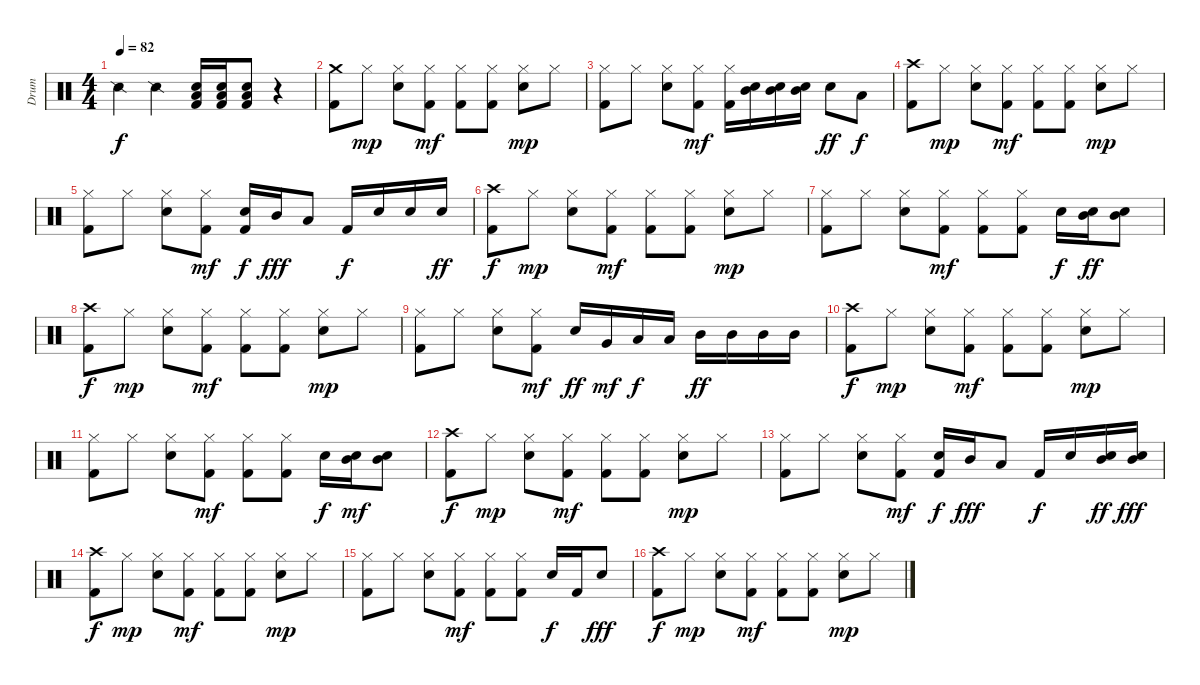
\track ("Drum" "Drum") {instrument percussion}
\staff {score}
\articulation defaults
\ts (4 4)
\tempo 82
\clef neutral
\ks c "Snare (side stick) 2".4{dy f} "Snare (side stick) 2".4
("Low Floor Tom (hit)" "Electric Snare (hit)" "Kick (hit) 2").16 ("Low Floor Tom (hit)" "Electric Snare (hit)" "Kick (hit) 2").16 ("Low Floor Tom (hit)" "Electric Snare (hit)" "Kick (hit) 2").8 r.4 |
("Crash medium (hit)" "Kick (hit) 2").8 "Hi-Hat (closed)".8{dy mp} ("Hi-Hat (closed)" "Electric Snare (hit)").8 ("Hi-Hat (closed)" "Kick (hit) 2").8{dy mf} ("Hi-Hat (closed)" "Kick (hit) 2").8 ("Hi-Hat (closed)" "Kick (hit) 2").8 ("Hi-Hat (closed)" "Electric Snare (hit)").8{dy mp} "Hi-Hat (closed)".8 |
("Hi-Hat (closed)" "Kick (hit) 2").8 "Hi-Hat (closed)".8 ("Hi-Hat (closed)" "Electric Snare (hit)").8 ("Hi-Hat (closed)" "Kick (hit) 2").8{dy mf} ("Hi-Hat (closed)" "Kick (hit) 2").16 ("Mid Tom (hit)" "Electric Snare (hit)").16 ("Mid Tom (hit)" "Electric Snare (hit)").16 ("Mid Tom (hit)" "Electric Snare (hit)").16 "Electric Snare (hit)".8{dy ff} "Low Tom (hit)".8{dy f} |
("Crash high (hit)" "Kick (hit) 2").8 "Hi-Hat (closed)".8{dy mp} ("Hi-Hat (closed)" "Electric Snare (hit)").8 ("Hi-Hat (closed)" "Kick (hit) 2").8{dy mf} ("Hi-Hat (closed)" "Kick (hit) 2").8 ("Hi-Hat (closed)" "Kick (hit) 2").8 ("Hi-Hat (closed)" "Electric Snare (hit)").8{dy mp} "Hi-Hat (closed)".8 |
("Hi-Hat (closed)" "Kick (hit) 2").8 "Hi-Hat (closed)".8 ("Hi-Hat (closed)" "Electric Snare (hit)").8 ("Hi-Hat (closed)" "Kick (hit) 2").8{dy mf} ("Electric Snare (hit)" "Kick (hit) 2").16{dy f} "Mid Tom (hit)".16{dy fff} "Low Tom (hit)".8 "Kick (hit) 2".16{dy f} "Snare (hit) 2".16 "Snare (hit) 2".16 "Snare (hit) 2".16{dy ff} |
("Crash high (hit)" "Kick (hit) 2").8{dy f} "Hi-Hat (closed)".8{dy mp} ("Hi-Hat (closed)" "Electric Snare (hit)").8 ("Hi-Hat (closed)" "Kick (hit) 2").8{dy mf} ("Hi-Hat (closed)" "Kick (hit) 2").8 ("Hi-Hat (closed)" "Kick (hit) 2").8 ("Hi-Hat (closed)" "Electric Snare (hit)").8{dy mp} "Hi-Hat (closed)".8 |
("Hi-Hat (closed)" "Kick (hit) 2").8 "Hi-Hat (closed)".8 ("Hi-Hat (closed)" "Electric Snare (hit)").8 ("Hi-Hat (closed)" "Kick (hit) 2").8{dy mf} ("Hi-Hat (closed)" "Kick (hit) 2").8 ("Hi-Hat (closed)" "Kick (hit) 2").8 "Electric Snare (hit)".16{dy f} ("Mid Tom (hit)" "Snare (hit) 2").16{dy ff} ("Mid Tom (hit)" "Snare (hit) 2").8 |
("Crash high (hit)" "Kick (hit) 2").8{dy f} "Hi-Hat (closed)".8{dy mp} ("Hi-Hat (closed)" "Electric Snare (hit)").8 ("Hi-Hat (closed)" "Kick (hit) 2").8{dy mf} ("Hi-Hat (closed)" "Kick (hit) 2").8 ("Hi-Hat (closed)" "Kick (hit) 2").8 ("Hi-Hat (closed)" "Electric Snare (hit)").8{dy mp} "Hi-Hat (closed)".8 |
("Hi-Hat (closed)" "Kick (hit) 2").8 "Hi-Hat (closed)".8 ("Hi-Hat (closed)" "Electric Snare (hit)").8 ("Hi-Hat (closed)" "Kick (hit) 2").8{dy mf} "Electric Snare (hit)".16{dy ff} "Very Low Tom (hit)".16{dy mf} "Low Floor Tom (hit)".16{dy f} "Low Floor Tom (hit)".16 "Mid Tom (hit)".16{dy ff} "Mid Tom (hit)".16 "Mid Tom (hit)".16 "Mid Tom (hit)".16 |
("Crash high (hit)" "Kick (hit) 2").8{dy f} "Hi-Hat (closed)".8{dy mp} ("Hi-Hat (closed)" "Electric Snare (hit)").8 ("Hi-Hat (closed)" "Kick (hit) 2").8{dy mf} ("Hi-Hat (closed)" "Kick (hit) 2").8 ("Hi-Hat (closed)" "Kick (hit) 2").8 ("Hi-Hat (closed)" "Electric Snare (hit)").8{dy mp} "Hi-Hat (closed)".8 |
("Hi-Hat (closed)" "Kick (hit) 2").8 "Hi-Hat (closed)".8 ("Hi-Hat (closed)" "Electric Snare (hit)").8 ("Hi-Hat (closed)" "Kick (hit) 2").8{dy mf} ("Hi-Hat (closed)" "Kick (hit) 2").8 ("Hi-Hat (closed)" "Kick (hit) 2").8 "Electric Snare (hit)".16{dy f} ("Mid Tom (hit)" "Snare (hit) 2").16{dy mf} ("Mid Tom (hit)" "Snare (hit) 2").8 |
("Crash high (hit)" "Kick (hit) 2").8{dy f} "Hi-Hat (closed)".8{dy mp} ("Hi-Hat (closed)" "Electric Snare (hit)").8 ("Hi-Hat (closed)" "Kick (hit) 2").8{dy mf} ("Hi-Hat (closed)" "Kick (hit) 2").8 ("Hi-Hat (closed)" "Kick (hit) 2").8 ("Hi-Hat (closed)" "Electric Snare (hit)").8{dy mp} "Hi-Hat (closed)".8 |
("Hi-Hat (closed)" "Kick (hit) 2").8 "Hi-Hat (closed)".8 ("Hi-Hat (closed)" "Electric Snare (hit)").8 ("Hi-Hat (closed)" "Kick (hit) 2").8{dy mf} ("Electric Snare (hit)" "Kick (hit) 2").16{dy f} "Mid Tom (hit)".16{dy fff} "Low Tom (hit)".8 "Kick (hit) 2".16{dy f} "Snare (hit) 2".16 ("Mid Tom (hit)" "Snare (hit) 2").16{dy ff} ("Mid Tom (hit)" "Snare (hit) 2").16{dy fff} |
("Crash high (hit)" "Kick (hit) 2").8{dy f} "Hi-Hat (closed)".8{dy mp} ("Hi-Hat (closed)" "Electric Snare (hit)").8 ("Hi-Hat (closed)" "Kick (hit) 2").8{dy mf} ("Hi-Hat (closed)" "Kick (hit) 2").8 ("Hi-Hat (closed)" "Kick (hit) 2").8 ("Hi-Hat (closed)" "Electric Snare (hit)").8{dy mp} "Hi-Hat (closed)".8 |
("Hi-Hat (closed)" "Kick (hit) 2").8 "Hi-Hat (closed)".8 ("Hi-Hat (closed)" "Electric Snare (hit)").8 ("Hi-Hat (closed)" "Kick (hit) 2").8{dy mf} ("Hi-Hat (closed)" "Kick (hit) 2").8 ("Hi-Hat (closed)" "Kick (hit) 2").8 "Electric Snare (hit)".16{dy f} "Kick (hit) 2".16 "Electric Snare (hit)".8{dy fff} |
("Crash high (hit)" "Kick (hit) 2").8{dy f} "Hi-Hat (closed)".8{dy mp} ("Hi-Hat (closed)" "Electric Snare (hit)").8 ("Hi-Hat (closed)" "Kick (hit) 2").8{dy mf} ("Hi-Hat (closed)" "Kick (hit) 2").8 ("Hi-Hat (closed)" "Kick (hit) 2").8 ("Hi-Hat (closed)" "Electric Snare (hit)").8{dy mp} "Hi-Hat (closed)".8
